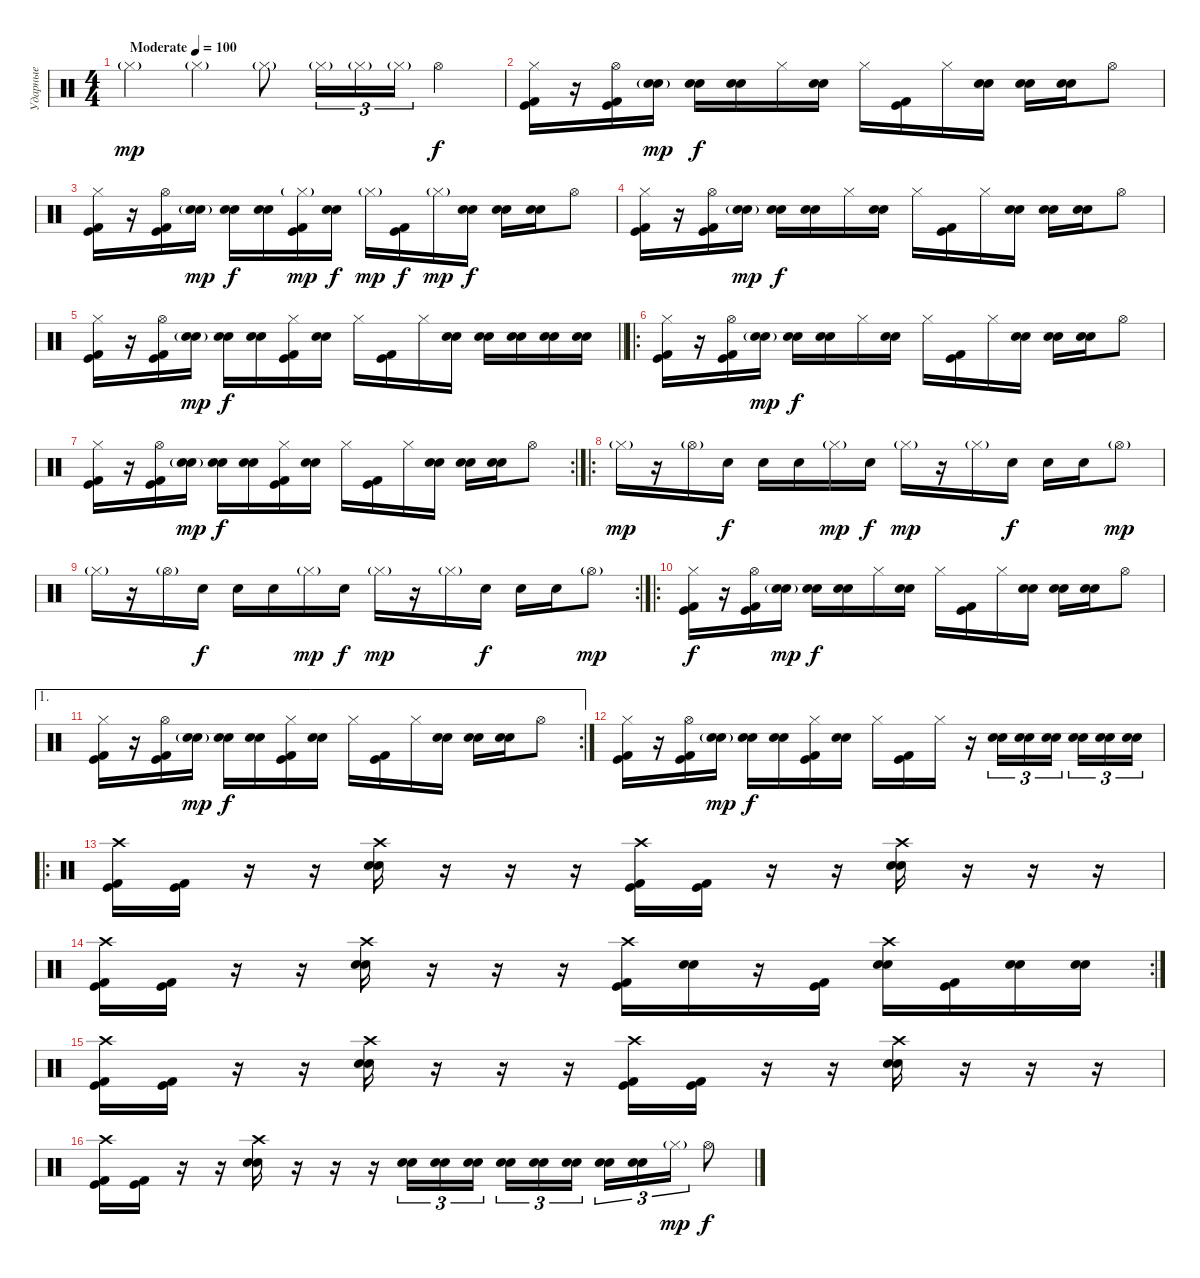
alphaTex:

\track ("Ударные" "Ударные") {instrument percussion}
\staff {score}
\articulation defaults
\ts (4 4)
\tempo (100 "Moderate")
\clef neutral
\ks c "Hi-Hat (closed)"{g}.4{dy mp} "Hi-Hat (closed)"{g}.4 "Hi-Hat (closed)"{g}.8 "Hi-Hat (closed)"{g}.16{tu (3 2)} "Hi-Hat (closed)"{g}.16{tu (3 2)} "Hi-Hat (closed)"{g}.16{tu (3 2)} "Hi-Hat (open)".4{dy f}
|
("Hi-Hat (closed)" "Kick (hit)" "Kick (hit) 2").16 r.16 ("Hi-Hat (open)" "Kick (hit)" "Kick (hit) 2").16 ("Snare (hit) 2"{g} "Electric Snare (hit)"{g}).16{dy mp} ("Snare (hit) 2" "Electric Snare (hit)").16{dy f} ("Snare (hit) 2" "Electric Snare (hit)").16 "Hi-Hat (closed)".16 ("Snare (hit) 2" "Electric Snare (hit)").16 "Hi-Hat (closed)".16 ("Kick (hit)" "Kick (hit) 2").16 "Hi-Hat (closed)".16 ("Snare (hit) 2" "Electric Snare (hit)").16 ("Snare (hit) 2" "Electric Snare (hit)").16 ("Snare (hit) 2" "Electric Snare (hit)").16 "Hi-Hat (open)".8 |
("Hi-Hat (closed)" "Kick (hit)" "Kick (hit) 2").16 r.16 ("Hi-Hat (open)" "Kick (hit)" "Kick (hit) 2").16 ("Snare (hit) 2"{g} "Electric Snare (hit)"{g}).16{dy mp} ("Snare (hit) 2" "Electric Snare (hit)").16{dy f} ("Snare (hit) 2" "Electric Snare (hit)").16 ("Hi-Hat (closed)"{g} "Kick (hit)" "Kick (hit) 2").16{dy mp} ("Snare (hit) 2" "Electric Snare (hit)").16{dy f} "Hi-Hat (closed)"{g}.16{dy mp} ("Kick (hit)" "Kick (hit) 2").16{dy f} "Hi-Hat (closed)"{g}.16{dy mp} ("Snare (hit) 2" "Electric Snare (hit)").16{dy f} ("Snare (hit) 2" "Electric Snare (hit)").16 ("Snare (hit) 2" "Electric Snare (hit)").16 "Hi-Hat (open)".8 |
("Hi-Hat (closed)" "Kick (hit)" "Kick (hit) 2").16 r.16 ("Hi-Hat (open)" "Kick (hit)" "Kick (hit) 2").16 ("Snare (hit) 2"{g} "Electric Snare (hit)"{g}).16{dy mp} ("Snare (hit) 2" "Electric Snare (hit)").16{dy f} ("Snare (hit) 2" "Electric Snare (hit)").16 "Hi-Hat (closed)".16 ("Snare (hit) 2" "Electric Snare (hit)").16 "Hi-Hat (closed)".16 ("Kick (hit)" "Kick (hit) 2").16 "Hi-Hat (closed)".16 ("Snare (hit) 2" "Electric Snare (hit)").16 ("Snare (hit) 2" "Electric Snare (hit)").16 ("Snare (hit) 2" "Electric Snare (hit)").16 "Hi-Hat (open)".8 |
\barLineRight lightlight
("Hi-Hat (closed)" "Kick (hit)" "Kick (hit) 2").16 r.16 ("Hi-Hat (open)" "Kick (hit)" "Kick (hit) 2").16 ("Snare (hit) 2"{g} "Electric Snare (hit)"{g}).16{dy mp} ("Snare (hit) 2" "Electric Snare (hit)").16{dy f} ("Snare (hit) 2" "Electric Snare (hit)").16 ("Hi-Hat (closed)" "Kick (hit)" "Kick (hit) 2").16 ("Snare (hit) 2" "Electric Snare (hit)").16 "Hi-Hat (closed)".16 ("Kick (hit)" "Kick (hit) 2").16 "Hi-Hat (closed)".16 ("Snare (hit) 2" "Electric Snare (hit)").16 ("Snare (hit) 2" "Electric Snare (hit)").16 ("Snare (hit) 2" "Electric Snare (hit)").16 ("Snare (hit) 2" "Electric Snare (hit)").16 ("Snare (hit) 2" "Electric Snare (hit)").16 |
\ro
("Hi-Hat (closed)" "Kick (hit)" "Kick (hit) 2").16 r.16 ("Hi-Hat (open)" "Kick (hit)" "Kick (hit) 2").16 ("Snare (hit) 2"{g} "Electric Snare (hit)"{g}).16{dy mp} ("Snare (hit) 2" "Electric Snare (hit)").16{dy f} ("Snare (hit) 2" "Electric Snare (hit)").16 "Hi-Hat (closed)".16 ("Snare (hit) 2" "Electric Snare (hit)").16 "Hi-Hat (closed)".16 ("Kick (hit)" "Kick (hit) 2").16 "Hi-Hat (closed)".16 ("Snare (hit) 2" "Electric Snare (hit)").16 ("Snare (hit) 2" "Electric Snare (hit)").16 ("Snare (hit) 2" "Electric Snare (hit)").16 "Hi-Hat (open)".8 |
\rc 2
("Hi-Hat (closed)" "Kick (hit)" "Kick (hit) 2").16 r.16 ("Hi-Hat (open)" "Kick (hit)" "Kick (hit) 2").16 ("Snare (hit) 2"{g} "Electric Snare (hit)"{g}).16{dy mp} ("Snare (hit) 2" "Electric Snare (hit)").16{dy f} ("Snare (hit) 2" "Electric Snare (hit)").16 ("Hi-Hat (closed)" "Kick (hit)" "Kick (hit) 2").16 ("Snare (hit) 2" "Electric Snare (hit)").16 "Hi-Hat (closed)".16 ("Kick (hit)" "Kick (hit) 2").16 "Hi-Hat (closed)".16 ("Snare (hit) 2" "Electric Snare (hit)").16 ("Snare (hit) 2" "Electric Snare (hit)").16 ("Snare (hit) 2" "Electric Snare (hit)").16 "Hi-Hat (open)".8 |
\ro "Hi-Hat (closed)"{g}.16{dy mp}
r.16 "Hi-Hat (open)"{g}.16 "Snare (hit) 2".16{dy f} "Snare (hit) 2".16 "Snare (hit) 2".16 "Hi-Hat (closed)"{g}.16{dy mp} "Snare (hit) 2".16{dy f} "Hi-Hat (closed)"{g}.16{dy mp} r.16 "Hi-Hat (closed)"{g}.16 "Snare (hit) 2".16{dy f} "Snare (hit) 2".16 "Snare (hit) 2".16 "Hi-Hat (open)"{g}.8{dy mp} |
\rc 2 "Hi-Hat (closed)"{g}.16
r.16 "Hi-Hat (open)"{g}.16 "Snare (hit) 2".16{dy f} "Snare (hit) 2".16 "Snare (hit) 2".16 "Hi-Hat (closed)"{g}.16{dy mp} "Snare (hit) 2".16{dy f} "Hi-Hat (closed)"{g}.16{dy mp} r.16 "Hi-Hat (closed)"{g}.16 "Snare (hit) 2".16{dy f} "Snare (hit) 2".16 "Snare (hit) 2".16 "Hi-Hat (open)"{g}.8{dy mp} |
\ro
("Hi-Hat (closed)" "Kick (hit)" "Kick (hit) 2").16{dy f} r.16 ("Hi-Hat (open)" "Kick (hit)" "Kick (hit) 2").16 ("Snare (hit) 2"{g} "Electric Snare (hit)"{g}).16{dy mp} ("Snare (hit) 2" "Electric Snare (hit)").16{dy f} ("Snare (hit) 2" "Electric Snare (hit)").16 "Hi-Hat (closed)".16 ("Snare (hit) 2" "Electric Snare (hit)").16 "Hi-Hat (closed)".16 ("Kick (hit)" "Kick (hit) 2").16 "Hi-Hat (closed)".16 ("Snare (hit) 2" "Electric Snare (hit)").16 ("Snare (hit) 2" "Electric Snare (hit)").16 ("Snare (hit) 2" "Electric Snare (hit)").16 "Hi-Hat (open)".8 |
\ae 1
\rc 2
("Hi-Hat (closed)" "Kick (hit)" "Kick (hit) 2").16 r.16 ("Hi-Hat (open)" "Kick (hit)" "Kick (hit) 2").16 ("Snare (hit) 2"{g} "Electric Snare (hit)"{g}).16{dy mp} ("Snare (hit) 2" "Electric Snare (hit)").16{dy f} ("Snare (hit) 2" "Electric Snare (hit)").16 ("Hi-Hat (closed)" "Kick (hit)" "Kick (hit) 2").16 ("Snare (hit) 2" "Electric Snare (hit)").16 "Hi-Hat (closed)".16 ("Kick (hit)" "Kick (hit) 2").16 "Hi-Hat (closed)".16 ("Snare (hit) 2" "Electric Snare (hit)").16 ("Snare (hit) 2" "Electric Snare (hit)").16 ("Snare (hit) 2" "Electric Snare (hit)").16 "Hi-Hat (open)".8 |
("Hi-Hat (closed)" "Kick (hit)" "Kick (hit) 2").16 r.16 ("Hi-Hat (open)" "Kick (hit)" "Kick (hit) 2").16 ("Snare (hit) 2"{g} "Electric Snare (hit)"{g}).16{dy mp} ("Snare (hit) 2" "Electric Snare (hit)").16{dy f} ("Snare (hit) 2" "Electric Snare (hit)").16 ("Hi-Hat (closed)" "Kick (hit)" "Kick (hit) 2").16 ("Snare (hit) 2" "Electric Snare (hit)").16 "Hi-Hat (closed)".16 ("Kick (hit)" "Kick (hit) 2").16 "Hi-Hat (closed)".16 r.16 ("Snare (hit) 2" "Electric Snare (hit)").16{tu (3 2)} ("Snare (hit) 2" "Electric Snare (hit)").16{tu (3 2)} ("Snare (hit) 2" "Electric Snare (hit)").16{tu (3 2) beam splitsecondary} ("Snare (hit) 2" "Electric Snare (hit)").16{tu (3 2)} ("Snare (hit) 2" "Electric Snare (hit)").16{tu (3 2)} ("Snare (hit) 2" "Electric Snare (hit)").16{tu (3 2)} |
\ro
("Crash high (hit)" "Kick (hit)" "Kick (hit) 2").16 ("Kick (hit)" "Kick (hit) 2").16 r.16 r.16 ("Crash high (hit)" "Snare (hit) 2" "Electric Snare (hit)").16 r.16 r.16 r.16 ("Crash high (hit)" "Kick (hit)" "Kick (hit) 2").16 ("Kick (hit)" "Kick (hit) 2").16 r.16 r.16 ("Crash high (hit)" "Snare (hit) 2" "Electric Snare (hit)").16 r.16 r.16 r.16 |
\rc 2
("Crash high (hit)" "Kick (hit)" "Kick (hit) 2").16 ("Kick (hit)" "Kick (hit) 2").16 r.16 r.16 ("Crash high (hit)" "Snare (hit) 2" "Electric Snare (hit)").16 r.16 r.16 r.16 ("Crash high (hit)" "Kick (hit)" "Kick (hit) 2").16 ("Snare (hit) 2" "Electric Snare (hit)").16 r.16 ("Kick (hit)" "Kick (hit) 2").16 ("Crash high (hit)" "Snare (hit) 2" "Electric Snare (hit)").16 ("Kick (hit)" "Kick (hit) 2").16 ("Snare (hit) 2" "Electric Snare (hit)").16 ("Snare (hit) 2" "Electric Snare (hit)").16 |
("Crash high (hit)" "Kick (hit)" "Kick (hit) 2").16 ("Kick (hit)" "Kick (hit) 2").16 r.16 r.16 ("Crash high (hit)" "Snare (hit) 2" "Electric Snare (hit)").16 r.16 r.16 r.16 ("Crash high (hit)" "Kick (hit)" "Kick (hit) 2").16 ("Kick (hit)" "Kick (hit) 2").16 r.16 r.16 ("Crash high (hit)" "Snare (hit) 2" "Electric Snare (hit)").16 r.16 r.16 r.16 |
("Crash high (hit)" "Kick (hit)" "Kick (hit) 2").16 ("Kick (hit)" "Kick (hit) 2").16 r.16 r.16 ("Crash high (hit)" "Snare (hit) 2" "Electric Snare (hit)").16 r.16 r.16 r.16 ("Snare (hit) 2" "Electric Snare (hit)").16{tu (3 2)} ("Snare (hit) 2" "Electric Snare (hit)").16{tu (3 2)} ("Snare (hit) 2" "Electric Snare (hit)").16{tu (3 2) beam splitsecondary} ("Snare (hit) 2" "Electric Snare (hit)").16{tu (3 2)} ("Snare (hit) 2" "Electric Snare (hit)").16{tu (3 2)} ("Snare (hit) 2" "Electric Snare (hit)").16{tu (3 2)} ("Snare (hit) 2" "Electric Snare (hit)").16{tu (3 2)} ("Snare (hit) 2" "Electric Snare (hit)").16{tu (3 2)} "Hi-Hat (closed)"{g}.16{tu (3 2) dy mp} "Hi-Hat (open)".8{dy f}
